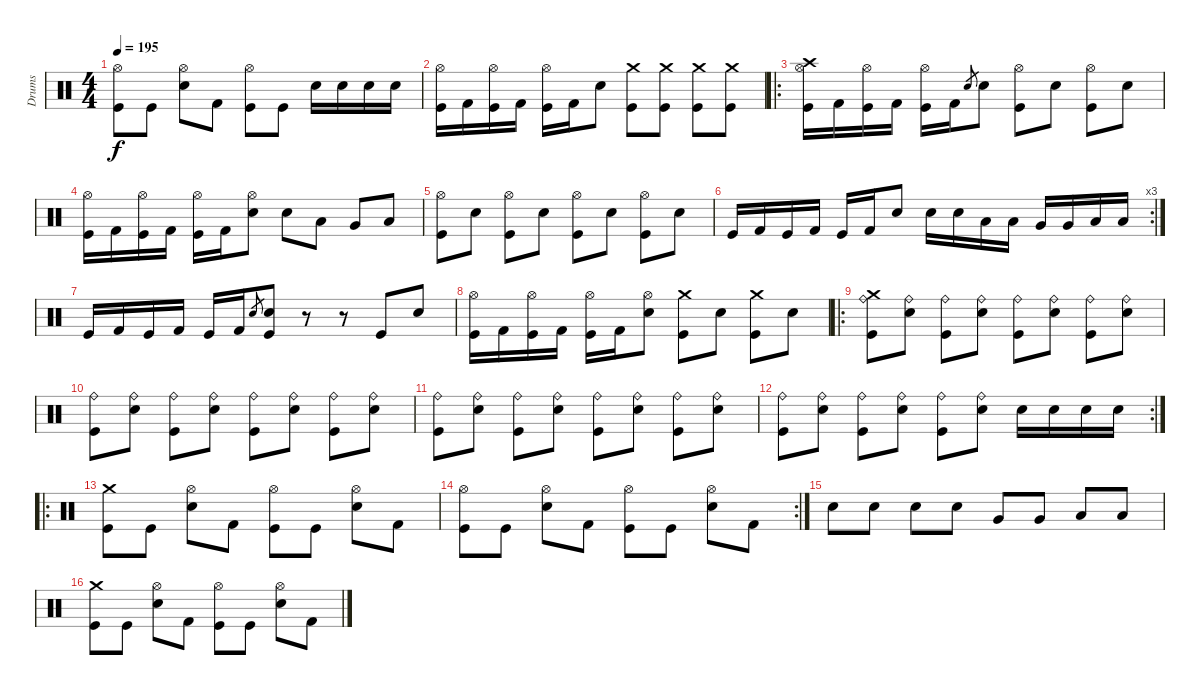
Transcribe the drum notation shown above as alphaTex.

\track ("Drums" "Drums") {instrument percussion}
\staff {score}
\articulation defaults
\ts (4 4)
\tempo 195
\clef neutral
\ks c
("Hi-Hat (open)" "Kick (hit)").8{dy f} "Kick (hit)".8 ("Hi-Hat (open)" "Electric Snare (hit)").8 "Kick (hit) 2".8 ("Hi-Hat (open)" "Kick (hit)").8 "Kick (hit)".8 "Electric Snare (hit)".16 "Electric Snare (hit)".16 "Electric Snare (hit)".16 "Electric Snare (hit)".16 |
("Hi-Hat (open)" "Kick (hit)").16 "Kick (hit) 2".16 ("Hi-Hat (open)" "Kick (hit)").16 "Kick (hit) 2".16 ("Hi-Hat (open)" "Kick (hit)").16 "Kick (hit) 2".16 "Electric Snare (hit)".8 ("Crash medium (hit)" "Kick (hit)").8 ("Crash medium (hit)" "Kick (hit)").8 ("Crash medium (hit)" "Kick (hit)").8 ("Crash medium (hit)" "Kick (hit)").8 |
\ro
("Crash high (hit)" "Hi-Hat (open)" "Kick (hit)").16 "Kick (hit) 2".16 ("Hi-Hat (open)" "Kick (hit)").16 "Kick (hit) 2".16 ("Hi-Hat (open)" "Kick (hit)").16 "Kick (hit) 2".16 "Electric Snare (hit)".8{gr} "Electric Snare (hit)".8 ("Hi-Hat (open)" "Kick (hit)").8 "Electric Snare (hit)".8 ("Hi-Hat (open)" "Kick (hit)").8 "Electric Snare (hit)".8 |
("Hi-Hat (open)" "Kick (hit)").16 "Kick (hit) 2".16 ("Hi-Hat (open)" "Kick (hit)").16 "Kick (hit) 2".16 ("Hi-Hat (open)" "Kick (hit)").16 "Kick (hit) 2".16 ("Hi-Hat (open)" "Electric Snare (hit)").8 "Electric Snare (hit)".8 "Low Tom (hit)".8 "Very Low Tom (hit)".8 "Low Floor Tom (hit)".8 |
("Hi-Hat (open)" "Kick (hit)").8 "Electric Snare (hit)".8 ("Hi-Hat (open)" "Kick (hit)").8 "Electric Snare (hit)".8 ("Hi-Hat (open)" "Kick (hit)").8 "Electric Snare (hit)".8 ("Hi-Hat (open)" "Kick (hit)").8 "Electric Snare (hit)".8 |
\rc 3 "Kick (hit)".16 "Kick (hit) 2".16 "Kick (hit)".16 "Kick (hit) 2".16 "Kick (hit)".16 "Kick (hit) 2".16 "Electric Snare (hit)".8 "Electric Snare (hit)".16 "Electric Snare (hit)".16 "Low Tom (hit)".16 "Low Tom (hit)".16 "Very Low Tom (hit)".16 "Very Low Tom (hit)".16 "Low Floor Tom (hit)".16 "Low Floor Tom (hit)".16
|
"Kick (hit)".16 "Kick (hit) 2".16 "Kick (hit)".16 "Kick (hit) 2".16 "Kick (hit)".16 "Kick (hit) 2".16 "Electric Snare (hit)".8{gr} ("Electric Snare (hit)" "Kick (hit)").8 r.8 r.8 "Kick (hit)".8 "Electric Snare (hit)".8 |
("Hi-Hat (open)" "Kick (hit)").16 "Kick (hit) 2".16 ("Hi-Hat (open)" "Kick (hit)").16 "Kick (hit) 2".16 ("Hi-Hat (open)" "Kick (hit)").16 "Kick (hit) 2".16 ("Hi-Hat (open)" "Electric Snare (hit)").8 ("Crash medium (hit)" "Kick (hit)").8 "Electric Snare (hit)".8 ("Crash medium (hit)" "Kick (hit)").8 "Electric Snare (hit)".8 |
\ro
("Ride (bell)" "Crash medium (hit)" "Kick (hit)").8 ("Ride (bell)" "Electric Snare (hit)").8 ("Ride (bell)" "Kick (hit)").8 ("Ride (bell)" "Electric Snare (hit)").8 ("Ride (bell)" "Kick (hit)").8 ("Ride (bell)" "Electric Snare (hit)").8 ("Ride (bell)" "Kick (hit)").8 ("Ride (bell)" "Electric Snare (hit)").8 |
("Ride (bell)" "Kick (hit)").8 ("Ride (bell)" "Electric Snare (hit)").8 ("Ride (bell)" "Kick (hit)").8 ("Ride (bell)" "Electric Snare (hit)").8 ("Ride (bell)" "Kick (hit)").8 ("Ride (bell)" "Electric Snare (hit)").8 ("Ride (bell)" "Kick (hit)").8 ("Ride (bell)" "Electric Snare (hit)").8 |
("Ride (bell)" "Kick (hit)").8 ("Ride (bell)" "Electric Snare (hit)").8 ("Ride (bell)" "Kick (hit)").8 ("Ride (bell)" "Electric Snare (hit)").8 ("Ride (bell)" "Kick (hit)").8 ("Ride (bell)" "Electric Snare (hit)").8 ("Ride (bell)" "Kick (hit)").8 ("Ride (bell)" "Electric Snare (hit)").8 |
\rc 2
("Ride (bell)" "Kick (hit)").8 ("Ride (bell)" "Electric Snare (hit)").8 ("Ride (bell)" "Kick (hit)").8 ("Ride (bell)" "Electric Snare (hit)").8 ("Ride (bell)" "Kick (hit)").8 ("Ride (bell)" "Electric Snare (hit)").8 "Electric Snare (hit)".16 "Electric Snare (hit)".16 "Electric Snare (hit)".16 "Electric Snare (hit)".16 |
\ro
("Crash medium (hit)" "Kick (hit)").8 "Kick (hit)".8 ("Hi-Hat (open)" "Electric Snare (hit)").8 "Kick (hit) 2".8 ("Hi-Hat (open)" "Kick (hit)").8 "Kick (hit)".8 ("Hi-Hat (open)" "Electric Snare (hit)").8 "Kick (hit) 2".8 |
\rc 2
("Hi-Hat (open)" "Kick (hit)").8 "Kick (hit)".8 ("Hi-Hat (open)" "Electric Snare (hit)").8 "Kick (hit) 2".8 ("Hi-Hat (open)" "Kick (hit)").8 "Kick (hit)".8 ("Hi-Hat (open)" "Electric Snare (hit)").8 "Kick (hit) 2".8 |
"Electric Snare (hit)".8 "Electric Snare (hit)".8 "Electric Snare (hit)".8 "Electric Snare (hit)".8 "Very Low Tom (hit)".8 "Very Low Tom (hit)".8 "Low Floor Tom (hit)".8 "Low Floor Tom (hit)".8 |
("Crash medium (hit)" "Kick (hit)").8 "Kick (hit)".8 ("Hi-Hat (open)" "Electric Snare (hit)").8 "Kick (hit) 2".8 ("Hi-Hat (open)" "Kick (hit)").8 "Kick (hit)".8 ("Hi-Hat (open)" "Electric Snare (hit)").8 "Kick (hit) 2".8
